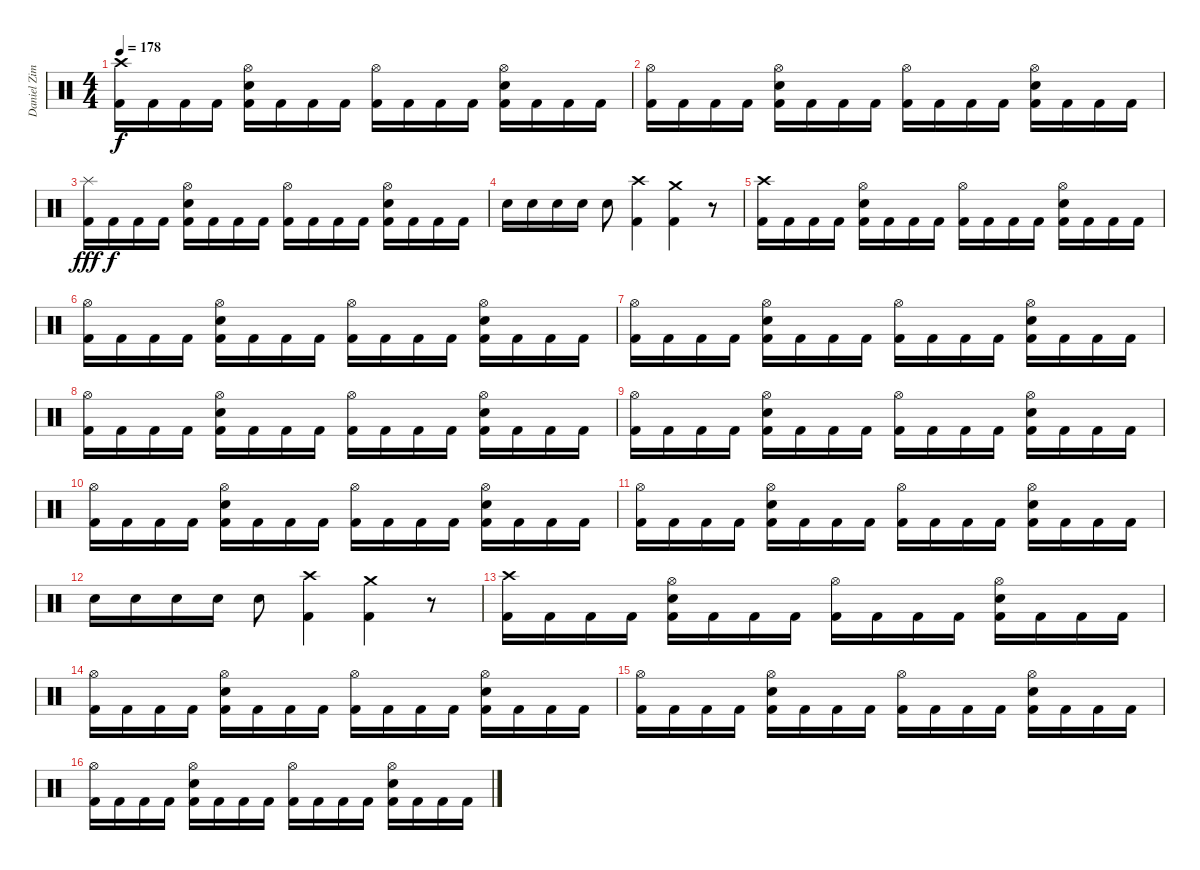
\track ("Daniel Zimmermann" "Daniel Zim") {instrument percussion}
\staff {score}
\articulation defaults
\ts (4 4)
\tempo 178
\clef neutral
\ks c
("Kick (hit) 2" "Crash high (hit)").16{dy f} "Kick (hit) 2".16 "Kick (hit) 2".16 "Kick (hit) 2".16 ("Kick (hit) 2" "Electric Snare (hit)" "Hi-Hat (open)").16 "Kick (hit) 2".16 "Kick (hit) 2".16 "Kick (hit) 2".16 ("Kick (hit) 2" "Hi-Hat (open)").16 "Kick (hit) 2".16 "Kick (hit) 2".16 "Kick (hit) 2".16 ("Kick (hit) 2" "Electric Snare (hit)" "Hi-Hat (open)").16 "Kick (hit) 2".16 "Kick (hit) 2".16 "Kick (hit) 2".16 |
("Kick (hit) 2" "Hi-Hat (open)").16 "Kick (hit) 2".16 "Kick (hit) 2".16 "Kick (hit) 2".16 ("Kick (hit) 2" "Electric Snare (hit)" "Hi-Hat (open)").16 "Kick (hit) 2".16 "Kick (hit) 2".16 "Kick (hit) 2".16 ("Kick (hit) 2" "Hi-Hat (open)").16 "Kick (hit) 2".16 "Kick (hit) 2".16 "Kick (hit) 2".16 ("Kick (hit) 2" "Electric Snare (hit)" "Hi-Hat (open)").16 "Kick (hit) 2".16 "Kick (hit) 2".16 "Kick (hit) 2".16 |
("Kick (hit) 2" "Splash (hit)").16{dy fff} "Kick (hit) 2".16{dy f} "Kick (hit) 2".16 "Kick (hit) 2".16 ("Kick (hit) 2" "Electric Snare (hit)" "Hi-Hat (open)").16 "Kick (hit) 2".16 "Kick (hit) 2".16 "Kick (hit) 2".16 ("Kick (hit) 2" "Hi-Hat (open)").16 "Kick (hit) 2".16 "Kick (hit) 2".16 "Kick (hit) 2".16 ("Kick (hit) 2" "Electric Snare (hit)" "Hi-Hat (open)").16 "Kick (hit) 2".16 "Kick (hit) 2".16 "Kick (hit) 2".16 |
"Electric Snare (hit)".16 "Electric Snare (hit)".16 "Electric Snare (hit)".16 "Electric Snare (hit)".16 "Electric Snare (hit)".8 ("Kick (hit) 2" "Crash high (hit)").4 ("Kick (hit) 2" "Crash medium (hit)").4 r.8 |
("Kick (hit) 2" "Crash high (hit)").16 "Kick (hit) 2".16 "Kick (hit) 2".16 "Kick (hit) 2".16 ("Kick (hit) 2" "Electric Snare (hit)" "Hi-Hat (open)").16 "Kick (hit) 2".16 "Kick (hit) 2".16 "Kick (hit) 2".16 ("Kick (hit) 2" "Hi-Hat (open)").16 "Kick (hit) 2".16 "Kick (hit) 2".16 "Kick (hit) 2".16 ("Kick (hit) 2" "Electric Snare (hit)" "Hi-Hat (open)").16 "Kick (hit) 2".16 "Kick (hit) 2".16 "Kick (hit) 2".16 |
("Kick (hit) 2" "Hi-Hat (open)").16 "Kick (hit) 2".16 "Kick (hit) 2".16 "Kick (hit) 2".16 ("Kick (hit) 2" "Electric Snare (hit)" "Hi-Hat (open)").16 "Kick (hit) 2".16 "Kick (hit) 2".16 "Kick (hit) 2".16 ("Kick (hit) 2" "Hi-Hat (open)").16 "Kick (hit) 2".16 "Kick (hit) 2".16 "Kick (hit) 2".16 ("Kick (hit) 2" "Electric Snare (hit)" "Hi-Hat (open)").16 "Kick (hit) 2".16 "Kick (hit) 2".16 "Kick (hit) 2".16 |
("Kick (hit) 2" "Hi-Hat (open)").16 "Kick (hit) 2".16 "Kick (hit) 2".16 "Kick (hit) 2".16 ("Kick (hit) 2" "Electric Snare (hit)" "Hi-Hat (open)").16 "Kick (hit) 2".16 "Kick (hit) 2".16 "Kick (hit) 2".16 ("Kick (hit) 2" "Hi-Hat (open)").16 "Kick (hit) 2".16 "Kick (hit) 2".16 "Kick (hit) 2".16 ("Kick (hit) 2" "Electric Snare (hit)" "Hi-Hat (open)").16 "Kick (hit) 2".16 "Kick (hit) 2".16 "Kick (hit) 2".16 |
("Kick (hit) 2" "Hi-Hat (open)").16 "Kick (hit) 2".16 "Kick (hit) 2".16 "Kick (hit) 2".16 ("Kick (hit) 2" "Electric Snare (hit)" "Hi-Hat (open)").16 "Kick (hit) 2".16 "Kick (hit) 2".16 "Kick (hit) 2".16 ("Kick (hit) 2" "Hi-Hat (open)").16 "Kick (hit) 2".16 "Kick (hit) 2".16 "Kick (hit) 2".16 ("Kick (hit) 2" "Electric Snare (hit)" "Hi-Hat (open)").16 "Kick (hit) 2".16 "Kick (hit) 2".16 "Kick (hit) 2".16 |
("Kick (hit) 2" "Hi-Hat (open)").16 "Kick (hit) 2".16 "Kick (hit) 2".16 "Kick (hit) 2".16 ("Kick (hit) 2" "Electric Snare (hit)" "Hi-Hat (open)").16 "Kick (hit) 2".16 "Kick (hit) 2".16 "Kick (hit) 2".16 ("Kick (hit) 2" "Hi-Hat (open)").16 "Kick (hit) 2".16 "Kick (hit) 2".16 "Kick (hit) 2".16 ("Kick (hit) 2" "Electric Snare (hit)" "Hi-Hat (open)").16 "Kick (hit) 2".16 "Kick (hit) 2".16 "Kick (hit) 2".16 |
("Kick (hit) 2" "Hi-Hat (open)").16 "Kick (hit) 2".16 "Kick (hit) 2".16 "Kick (hit) 2".16 ("Kick (hit) 2" "Electric Snare (hit)" "Hi-Hat (open)").16 "Kick (hit) 2".16 "Kick (hit) 2".16 "Kick (hit) 2".16 ("Kick (hit) 2" "Hi-Hat (open)").16 "Kick (hit) 2".16 "Kick (hit) 2".16 "Kick (hit) 2".16 ("Kick (hit) 2" "Electric Snare (hit)" "Hi-Hat (open)").16 "Kick (hit) 2".16 "Kick (hit) 2".16 "Kick (hit) 2".16 |
("Kick (hit) 2" "Hi-Hat (open)").16 "Kick (hit) 2".16 "Kick (hit) 2".16 "Kick (hit) 2".16 ("Kick (hit) 2" "Electric Snare (hit)" "Hi-Hat (open)").16 "Kick (hit) 2".16 "Kick (hit) 2".16 "Kick (hit) 2".16 ("Kick (hit) 2" "Hi-Hat (open)").16 "Kick (hit) 2".16 "Kick (hit) 2".16 "Kick (hit) 2".16 ("Kick (hit) 2" "Electric Snare (hit)" "Hi-Hat (open)").16 "Kick (hit) 2".16 "Kick (hit) 2".16 "Kick (hit) 2".16 |
"Electric Snare (hit)".16 "Electric Snare (hit)".16 "Electric Snare (hit)".16 "Electric Snare (hit)".16 "Electric Snare (hit)".8 ("Kick (hit) 2" "Crash high (hit)").4 ("Kick (hit) 2" "Crash medium (hit)").4 r.8 |
("Kick (hit) 2" "Crash high (hit)").16 "Kick (hit) 2".16 "Kick (hit) 2".16 "Kick (hit) 2".16 ("Kick (hit) 2" "Electric Snare (hit)" "Hi-Hat (open)").16 "Kick (hit) 2".16 "Kick (hit) 2".16 "Kick (hit) 2".16 ("Kick (hit) 2" "Hi-Hat (open)").16 "Kick (hit) 2".16 "Kick (hit) 2".16 "Kick (hit) 2".16 ("Kick (hit) 2" "Electric Snare (hit)" "Hi-Hat (open)").16 "Kick (hit) 2".16 "Kick (hit) 2".16 "Kick (hit) 2".16 |
("Kick (hit) 2" "Hi-Hat (open)").16 "Kick (hit) 2".16 "Kick (hit) 2".16 "Kick (hit) 2".16 ("Kick (hit) 2" "Electric Snare (hit)" "Hi-Hat (open)").16 "Kick (hit) 2".16 "Kick (hit) 2".16 "Kick (hit) 2".16 ("Kick (hit) 2" "Hi-Hat (open)").16 "Kick (hit) 2".16 "Kick (hit) 2".16 "Kick (hit) 2".16 ("Kick (hit) 2" "Electric Snare (hit)" "Hi-Hat (open)").16 "Kick (hit) 2".16 "Kick (hit) 2".16 "Kick (hit) 2".16 |
("Kick (hit) 2" "Hi-Hat (open)").16 "Kick (hit) 2".16 "Kick (hit) 2".16 "Kick (hit) 2".16 ("Kick (hit) 2" "Electric Snare (hit)" "Hi-Hat (open)").16 "Kick (hit) 2".16 "Kick (hit) 2".16 "Kick (hit) 2".16 ("Kick (hit) 2" "Hi-Hat (open)").16 "Kick (hit) 2".16 "Kick (hit) 2".16 "Kick (hit) 2".16 ("Kick (hit) 2" "Electric Snare (hit)" "Hi-Hat (open)").16 "Kick (hit) 2".16 "Kick (hit) 2".16 "Kick (hit) 2".16 |
("Kick (hit) 2" "Hi-Hat (open)").16 "Kick (hit) 2".16 "Kick (hit) 2".16 "Kick (hit) 2".16 ("Kick (hit) 2" "Electric Snare (hit)" "Hi-Hat (open)").16 "Kick (hit) 2".16 "Kick (hit) 2".16 "Kick (hit) 2".16 ("Kick (hit) 2" "Hi-Hat (open)").16 "Kick (hit) 2".16 "Kick (hit) 2".16 "Kick (hit) 2".16 ("Kick (hit) 2" "Electric Snare (hit)" "Hi-Hat (open)").16 "Kick (hit) 2".16 "Kick (hit) 2".16 "Kick (hit) 2".16
